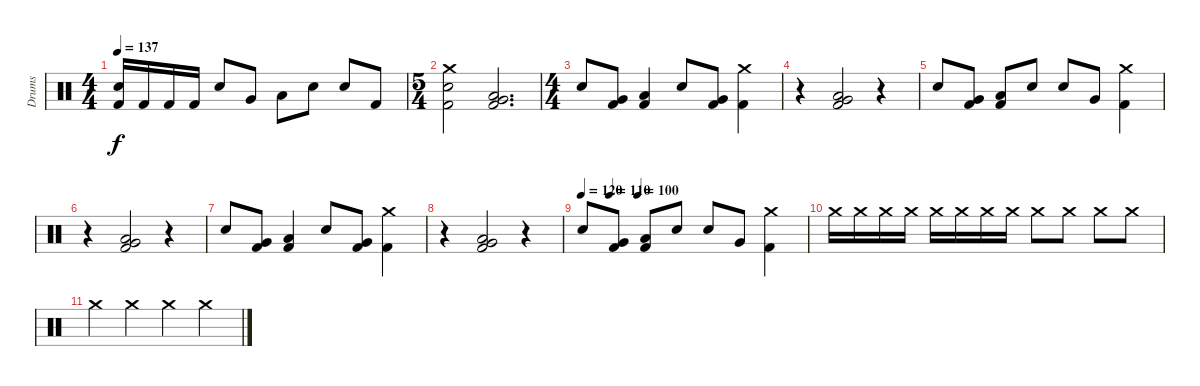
\track ("Drums" "Drums") {instrument percussion}
\staff {score}
\articulation defaults
\ts (4 4)
\tempo 137
\clef neutral
\ks c
("Snare (hit) 2" "Kick (hit) 2").16{dy f} "Kick (hit) 2".16 "Kick (hit) 2".16 "Kick (hit) 2".16 "Snare (hit) 2".8 "Very Low Tom (hit)".8 "Low Floor Tom (hit)".8 "Snare (hit) 2".8 "Snare (hit) 2".8 "Kick (hit) 2".8 |
\ts (5 4)
("Crash medium (hit)" "Snare (hit) 2" "Kick (hit) 2").2 ("Low Tom (hit)" "Very Low Tom (hit)" "Kick (hit) 2").2{d} |
\ts (4 4)
"Snare (hit) 2".8 ("Very Low Tom (hit)" "Kick (hit) 2").8 ("Low Floor Tom (hit)" "Kick (hit) 2").4 "Snare (hit) 2".8 ("Very Low Tom (hit)" "Kick (hit) 2").8 ("Crash medium (hit)" "Kick (hit) 2").4 |
r.4 ("Low Tom (hit)" "Very Low Tom (hit)" "Kick (hit) 2").2 r.4 |
"Snare (hit) 2".8 ("Very Low Tom (hit)" "Kick (hit) 2").8 ("Low Floor Tom (hit)" "Kick (hit) 2").8 "Snare (hit) 2".8 "Snare (hit) 2".8 "Very Low Tom (hit)".8 ("Crash medium (hit)" "Kick (hit) 2").4 |
r.4 ("Low Tom (hit)" "Very Low Tom (hit)" "Kick (hit) 2").2 r.4 |
"Snare (hit) 2".8 ("Very Low Tom (hit)" "Kick (hit) 2").8 ("Low Floor Tom (hit)" "Kick (hit) 2").4 "Snare (hit) 2".8 ("Very Low Tom (hit)" "Kick (hit) 2").8 ("Crash medium (hit)" "Kick (hit) 2").4 |
r.4 ("Low Tom (hit)" "Very Low Tom (hit)" "Kick (hit) 2").2 r.4 |
\tempo 120
\tempo (110 0.125)
\tempo (100 0.25)
"Snare (hit) 2".8 ("Very Low Tom (hit)" "Kick (hit) 2").8 ("Low Floor Tom (hit)" "Kick (hit) 2").8 "Snare (hit) 2".8 "Snare (hit) 2".8 "Very Low Tom (hit)".8 ("Crash medium (hit)" "Kick (hit) 2").4 |
"Crash medium (hit)".16 "Crash medium (hit)".16 "Crash medium (hit)".16 "Crash medium (hit)".16 "Crash medium (hit)".16 "Crash medium (hit)".16 "Crash medium (hit)".16 "Crash medium (hit)".16 "Crash medium (hit)".8 "Crash medium (hit)".8 "Crash medium (hit)".8 "Crash medium (hit)".8 |
"Crash medium (hit)".4 "Crash medium (hit)".4 "Crash medium (hit)".4 "Crash medium (hit)".4
